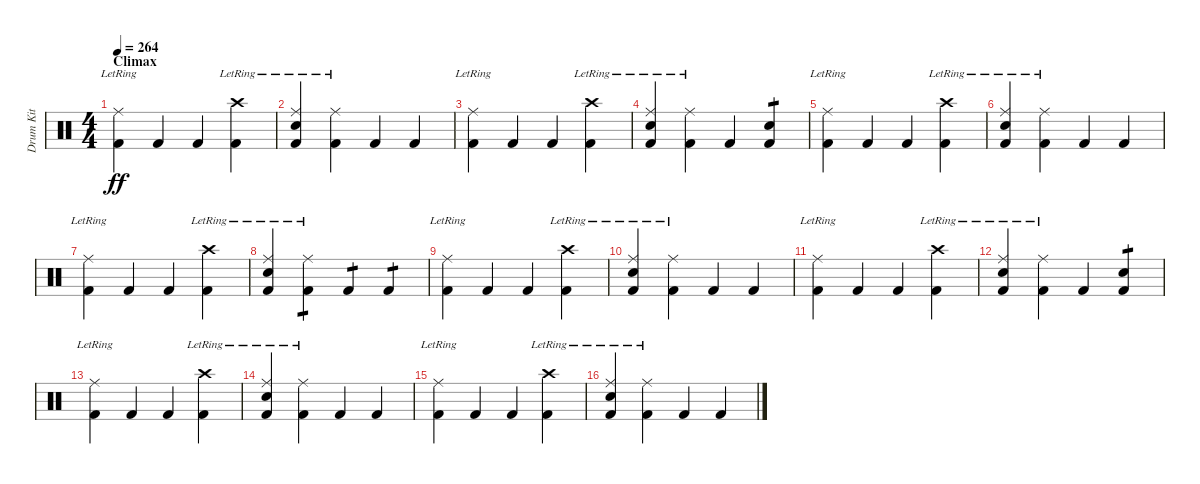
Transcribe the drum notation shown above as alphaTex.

\track ("Drum Kit" "Drum Kit") {instrument percussion}
\staff {score}
\articulation defaults
\ts (4 4)
\section ("" "Climax")
\tempo 264
\clef neutral
\ks c
("Kick (hit) 2" "Ride (middle)"{lr}).4{dy ff} "Kick (hit) 2".4 "Kick (hit) 2".4 ("Kick (hit) 2" "Crash high (hit)"{lr}).4 |
("Kick (hit) 2" "Snare (hit) 2" "Ride (middle)"{lr}).4 ("Kick (hit) 2" "Ride (middle)"{lr}).4 "Kick (hit) 2".4 "Kick (hit) 2".4 |
("Kick (hit) 2" "Ride (middle)"{lr}).4 "Kick (hit) 2".4 "Kick (hit) 2".4 ("Kick (hit) 2" "Crash high (hit)"{lr}).4 |
("Kick (hit) 2" "Snare (hit) 2" "Ride (middle)"{lr}).4 ("Kick (hit) 2" "Ride (middle)"{lr}).4 "Kick (hit) 2".4 ("Kick (hit) 2" "Snare (hit) 2").4{tp 1} |
("Kick (hit) 2" "Ride (middle)"{lr}).4 "Kick (hit) 2".4 "Kick (hit) 2".4 ("Kick (hit) 2" "Crash high (hit)"{lr}).4 |
("Kick (hit) 2" "Snare (hit) 2" "Ride (middle)"{lr}).4 ("Kick (hit) 2" "Ride (middle)"{lr}).4 "Kick (hit) 2".4 "Kick (hit) 2".4 |
("Kick (hit) 2" "Ride (middle)"{lr}).4 "Kick (hit) 2".4 "Kick (hit) 2".4 ("Kick (hit) 2" "Crash high (hit)"{lr}).4 |
("Kick (hit) 2" "Snare (hit) 2" "Ride (middle)"{lr}).4 ("Kick (hit) 2" "Ride (middle)"{lr}).4{tp 1} "Kick (hit) 2".4{tp 1} "Kick (hit) 2".4{tp 1} |
("Kick (hit) 2" "Ride (middle)"{lr}).4 "Kick (hit) 2".4 "Kick (hit) 2".4 ("Kick (hit) 2" "Crash high (hit)"{lr}).4 |
("Kick (hit) 2" "Snare (hit) 2" "Ride (middle)"{lr}).4 ("Kick (hit) 2" "Ride (middle)"{lr}).4 "Kick (hit) 2".4 "Kick (hit) 2".4 |
("Kick (hit) 2" "Ride (middle)"{lr}).4 "Kick (hit) 2".4 "Kick (hit) 2".4 ("Kick (hit) 2" "Crash high (hit)"{lr}).4 |
("Kick (hit) 2" "Snare (hit) 2" "Ride (middle)"{lr}).4 ("Kick (hit) 2" "Ride (middle)"{lr}).4 "Kick (hit) 2".4 ("Kick (hit) 2" "Snare (hit) 2").4{tp 1} |
("Kick (hit) 2" "Ride (middle)"{lr}).4 "Kick (hit) 2".4 "Kick (hit) 2".4 ("Kick (hit) 2" "Crash high (hit)"{lr}).4 |
("Kick (hit) 2" "Snare (hit) 2" "Ride (middle)"{lr}).4 ("Kick (hit) 2" "Ride (middle)"{lr}).4 "Kick (hit) 2".4 "Kick (hit) 2".4 |
("Kick (hit) 2" "Ride (middle)"{lr}).4 "Kick (hit) 2".4 "Kick (hit) 2".4 ("Kick (hit) 2" "Crash high (hit)"{lr}).4 |
("Kick (hit) 2" "Snare (hit) 2" "Ride (middle)"{lr}).4 ("Kick (hit) 2" "Ride (middle)"{lr}).4 "Kick (hit) 2".4 "Kick (hit) 2".4
